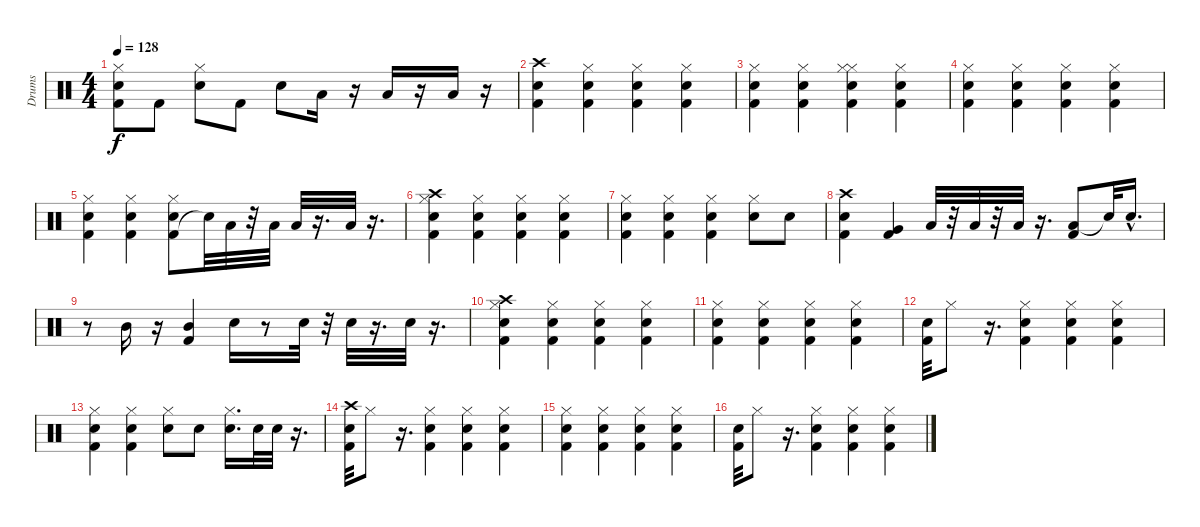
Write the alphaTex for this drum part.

\track ("Drums" "Drums") {instrument percussion}
\staff {score}
\articulation defaults
\ts (4 4)
\tempo 128
\clef neutral
\ks c
("Kick (hit) 2" "Snare (hit) 2" "Hi-Hat (closed)").8{dy f} "Kick (hit) 2".8 ("Snare (hit) 2" "Hi-Hat (closed)").8 "Kick (hit) 2".8 "Snare (hit) 2".8 "Low Tom (hit)".16 r.16 "Low Tom (hit)".16 r.16 "Low Tom (hit)".16 r.16 |
("Snare (hit) 2" "Crash high (hit)" "Kick (hit) 2").4 ("Kick (hit) 2" "Snare (hit) 2" "Hi-Hat (closed)").4 ("Snare (hit) 2" "Hi-Hat (closed)" "Kick (hit) 2").4 ("Hi-Hat (closed)" "Kick (hit) 2" "Snare (hit) 2").4 |
("Snare (hit) 2" "Hi-Hat (closed)" "Kick (hit) 2").4 ("Kick (hit) 2" "Hi-Hat (closed)" "Snare (hit) 2").4 ("Hi-Hat (closed)" "Kick (hit) 2" "Hi-Hat (closed)" "Snare (hit) 2").4 ("Snare (hit) 2" "Hi-Hat (closed)" "Kick (hit) 2").4 |
("Kick (hit) 2" "Hi-Hat (closed)" "Snare (hit) 2").4 ("Snare (hit) 2" "Hi-Hat (closed)" "Kick (hit) 2").4 ("Snare (hit) 2" "Hi-Hat (closed)" "Kick (hit) 2").4 ("Hi-Hat (closed)" "Kick (hit) 2" "Snare (hit) 2").4 |
("Kick (hit) 2" "Snare (hit) 2" "Hi-Hat (closed)").4 ("Snare (hit) 2" "Kick (hit) 2" "Hi-Hat (closed)").4 ("Kick (hit) 2" "Snare (hit) 2" "Hi-Hat (closed)").8 "Snare (hit)"{t}.32 "Low Tom (hit)".32 r.32 "Low Tom (hit)".32 "Low Tom (hit)".32 r.16{d} "Low Tom (hit)".32 r.16{d} |
("Crash high (hit)" "Snare (hit) 2" "Hi-Hat (closed)" "Kick (hit) 2").4 ("Kick (hit) 2" "Snare (hit) 2" "Hi-Hat (closed)").4 ("Snare (hit) 2" "Hi-Hat (closed)" "Kick (hit) 2").4 ("Kick (hit) 2" "Snare (hit) 2" "Hi-Hat (closed)").4 |
("Hi-Hat (closed)" "Kick (hit) 2" "Snare (hit) 2").4 ("Hi-Hat (closed)" "Kick (hit) 2" "Snare (hit) 2").4 ("Hi-Hat (closed)" "Kick (hit) 2" "Snare (hit) 2").4 ("Snare (hit) 2" "Hi-Hat (closed)").8 "Snare (hit) 2".8 |
("Crash high (hit)" "Kick (hit) 2" "Snare (hit) 2").4 ("Very Low Tom (hit)" "Kick (hit) 2").4 "Low Tom (hit)".32 r.32 "Low Tom (hit)".32 r.32 "Low Tom (hit)".32 r.16{d} ("Low Tom (hit)" "Kick (hit) 2").8 "Snare (hit)"{t}.32 "Snare (hit) 2"{hac}.16{d} |
r.8 "Mid Tom (hit)".16 r.16 ("Kick (hit) 2" "Mid Tom (hit)").4 "Snare (hit) 2".16 r.8 "Snare (hit) 2".32 r.32 "Snare (hit) 2".32 r.16{d} "Snare (hit) 2".32 r.16{d} |
("Kick (hit) 2" "Crash high (hit)" "Snare (hit) 2" "Hi-Hat (closed)").4 ("Kick (hit) 2" "Snare (hit) 2" "Hi-Hat (closed)").4 ("Snare (hit) 2" "Kick (hit) 2" "Hi-Hat (closed)").4 ("Hi-Hat (closed)" "Kick (hit) 2" "Snare (hit) 2").4 |
("Snare (hit) 2" "Hi-Hat (closed)" "Kick (hit) 2").4 ("Kick (hit) 2" "Hi-Hat (closed)" "Snare (hit) 2").4 ("Snare (hit) 2" "Kick (hit) 2" "Hi-Hat (closed)").4 ("Snare (hit) 2" "Hi-Hat (closed)" "Kick (hit) 2").4 |
("Snare (hit) 2" "Kick (hit) 2").32 "Hi-Hat (closed)".8 r.16{d} ("Kick (hit) 2" "Hi-Hat (closed)" "Snare (hit) 2").4 ("Hi-Hat (closed)" "Snare (hit) 2" "Kick (hit) 2").4 ("Hi-Hat (closed)" "Snare (hit) 2" "Kick (hit) 2").4 |
("Snare (hit) 2" "Kick (hit) 2" "Hi-Hat (closed)").4 ("Snare (hit) 2" "Kick (hit) 2" "Hi-Hat (closed)").4 ("Hi-Hat (closed)" "Snare (hit) 2").8 "Snare (hit) 2".8 ("Snare (hit) 2" "Hi-Hat (closed)").16{d} "Snare (hit) 2".32 "Snare (hit) 2".32 r.16{d} |
("Snare (hit) 2" "Kick (hit) 2" "Crash high (hit)").32 "Hi-Hat (closed)".8 r.16{d} ("Snare (hit) 2" "Hi-Hat (closed)" "Kick (hit) 2").4 ("Hi-Hat (closed)" "Snare (hit) 2" "Kick (hit) 2").4 ("Hi-Hat (closed)" "Snare (hit) 2" "Kick (hit) 2").4 |
("Kick (hit) 2" "Hi-Hat (closed)" "Snare (hit) 2").4 ("Kick (hit) 2" "Hi-Hat (closed)" "Snare (hit) 2").4 ("Kick (hit) 2" "Snare (hit) 2" "Hi-Hat (closed)").4 ("Hi-Hat (closed)" "Snare (hit) 2" "Kick (hit) 2").4 |
("Snare (hit) 2" "Kick (hit) 2").32 "Hi-Hat (closed)".8 r.16{d} ("Kick (hit) 2" "Hi-Hat (closed)" "Snare (hit) 2").4 ("Snare (hit) 2" "Kick (hit) 2" "Hi-Hat (closed)").4 ("Snare (hit) 2" "Hi-Hat (closed)" "Kick (hit) 2").4
